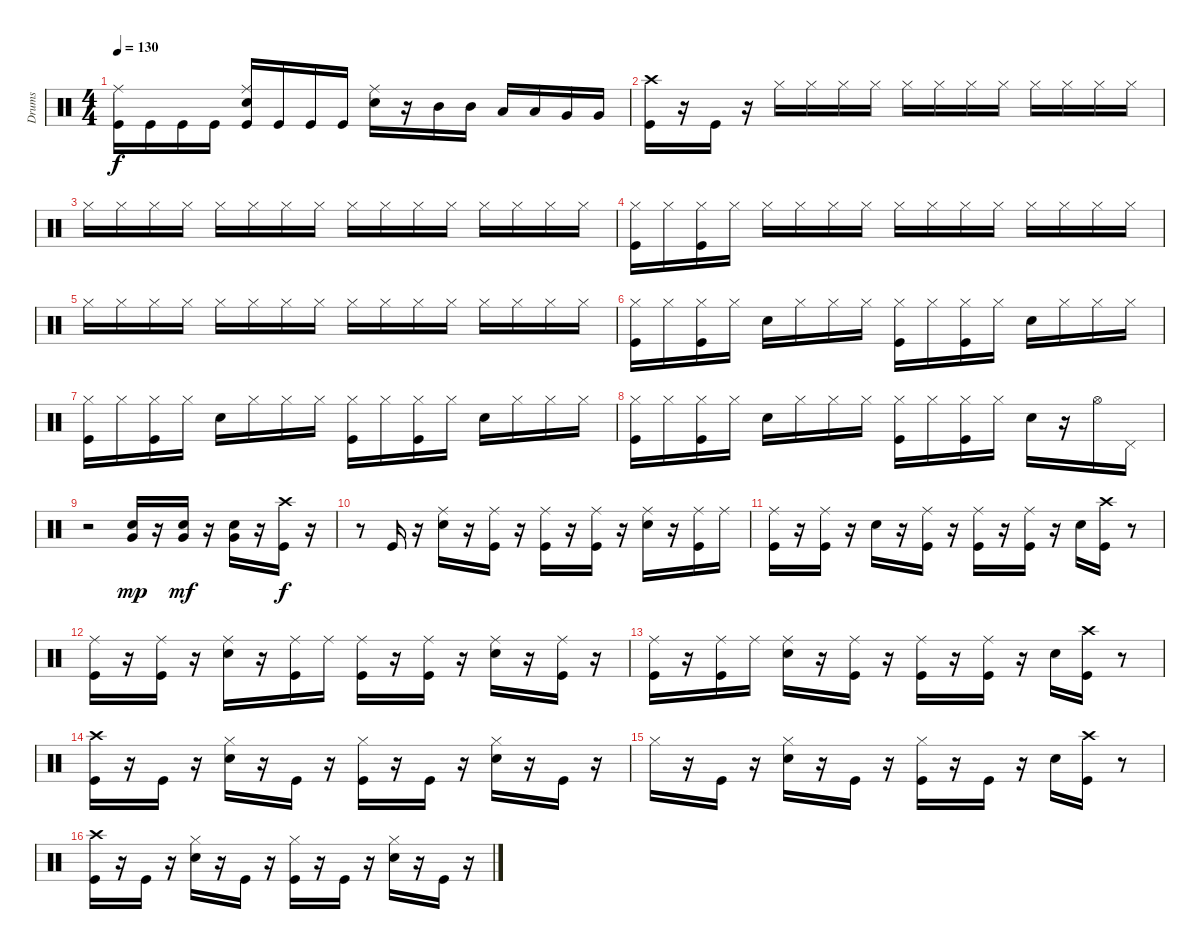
\track ("Drums" "Drums") {instrument percussion}
\staff {score}
\articulation defaults
\ts (4 4)
\tempo 130
\clef neutral
\ks c
("Kick (hit)" "Ride (middle)").16{dy f} "Kick (hit)".16 "Kick (hit)".16 "Kick (hit)".16 ("Kick (hit)" "Snare (hit) 2" "Ride (middle)").16 "Kick (hit)".16 "Kick (hit)".16 "Kick (hit)".16 ("Ride (middle)" "Snare (hit) 2").16 r.16 "Mid Tom (hit)".16 "Mid Tom (hit)".16 "Low Tom (hit)".16 "Low Tom (hit)".16 "Very Low Tom (hit)".16 "Very Low Tom (hit)".16 |
("Crash high (hit)" "Kick (hit)").16 r.16 "Kick (hit)".16 r.16 "Hi-Hat (closed)".16 "Hi-Hat (closed)".16 "Hi-Hat (closed)".16 "Hi-Hat (closed)".16 "Hi-Hat (closed)".16 "Hi-Hat (closed)".16 "Hi-Hat (closed)".16 "Hi-Hat (closed)".16 "Hi-Hat (closed)".16 "Hi-Hat (closed)".16 "Hi-Hat (closed)".16 "Hi-Hat (closed)".16 |
"Hi-Hat (closed)".16 "Hi-Hat (closed)".16 "Hi-Hat (closed)".16 "Hi-Hat (closed)".16 "Hi-Hat (closed)".16 "Hi-Hat (closed)".16 "Hi-Hat (closed)".16 "Hi-Hat (closed)".16 "Hi-Hat (closed)".16 "Hi-Hat (closed)".16 "Hi-Hat (closed)".16 "Hi-Hat (closed)".16 "Hi-Hat (closed)".16 "Hi-Hat (closed)".16 "Hi-Hat (closed)".16 "Hi-Hat (closed)".16 |
("Kick (hit)" "Hi-Hat (closed)").16 "Hi-Hat (closed)".16 ("Kick (hit)" "Hi-Hat (closed)").16 "Hi-Hat (closed)".16 "Hi-Hat (closed)".16 "Hi-Hat (closed)".16 "Hi-Hat (closed)".16 "Hi-Hat (closed)".16 "Hi-Hat (closed)".16 "Hi-Hat (closed)".16 "Hi-Hat (closed)".16 "Hi-Hat (closed)".16 "Hi-Hat (closed)".16 "Hi-Hat (closed)".16 "Hi-Hat (closed)".16 "Hi-Hat (closed)".16 |
"Hi-Hat (closed)".16 "Hi-Hat (closed)".16 "Hi-Hat (closed)".16 "Hi-Hat (closed)".16 "Hi-Hat (closed)".16 "Hi-Hat (closed)".16 "Hi-Hat (closed)".16 "Hi-Hat (closed)".16 "Hi-Hat (closed)".16 "Hi-Hat (closed)".16 "Hi-Hat (closed)".16 "Hi-Hat (closed)".16 "Hi-Hat (closed)".16 "Hi-Hat (closed)".16 "Hi-Hat (closed)".16 "Hi-Hat (closed)".16 |
("Kick (hit)" "Hi-Hat (closed)").16 "Hi-Hat (closed)".16 ("Kick (hit)" "Hi-Hat (closed)").16 "Hi-Hat (closed)".16 "Snare (hit) 2".16 "Hi-Hat (closed)".16 "Hi-Hat (closed)".16 "Hi-Hat (closed)".16 ("Kick (hit)" "Hi-Hat (closed)").16 "Hi-Hat (closed)".16 ("Kick (hit)" "Hi-Hat (closed)").16 "Hi-Hat (closed)".16 "Snare (hit) 2".16 "Hi-Hat (closed)".16 "Hi-Hat (closed)".16 "Hi-Hat (closed)".16 |
("Kick (hit)" "Hi-Hat (closed)").16 "Hi-Hat (closed)".16 ("Kick (hit)" "Hi-Hat (closed)").16 "Hi-Hat (closed)".16 "Snare (hit) 2".16 "Hi-Hat (closed)".16 "Hi-Hat (closed)".16 "Hi-Hat (closed)".16 ("Kick (hit)" "Hi-Hat (closed)").16 "Hi-Hat (closed)".16 ("Kick (hit)" "Hi-Hat (closed)").16 "Hi-Hat (closed)".16 "Snare (hit) 2".16 "Hi-Hat (closed)".16 "Hi-Hat (closed)".16 "Hi-Hat (closed)".16 |
("Kick (hit)" "Hi-Hat (closed)").16 "Hi-Hat (closed)".16 ("Kick (hit)" "Hi-Hat (closed)").16 "Hi-Hat (closed)".16 "Snare (hit) 2".16 "Hi-Hat (closed)".16 "Hi-Hat (closed)".16 "Hi-Hat (closed)".16 ("Kick (hit)" "Hi-Hat (closed)").16 "Hi-Hat (closed)".16 ("Kick (hit)" "Hi-Hat (closed)").16 "Hi-Hat (closed)".16 "Snare (hit) 2".16 r.16 "Hi-Hat (open)".16 "Pedal Hi-Hat (hit)".16 |
r.2 ("Very Low Tom (hit)" "Snare (hit) 2").16{dy mp} r.16 ("Very Low Tom (hit)" "Snare (hit) 2").16{dy mf} r.16 ("Very Low Tom (hit)" "Snare (hit) 2").16 r.16 ("Crash high (hit)" "Kick (hit)").16{dy f} r.16 |
r.8 "Kick (hit)".16 r.16 ("Snare (hit) 2" "Ride (middle)").16 r.16 ("Kick (hit)" "Ride (middle)").16 r.16 ("Kick (hit)" "Ride (middle)").16 r.16 ("Kick (hit)" "Ride (middle)").16 r.16 ("Snare (hit) 2" "Ride (middle)").16 r.16 ("Kick (hit)" "Ride (middle)").16 "Ride (middle)".16 |
("Kick (hit)" "Ride (middle)").16 r.16 ("Kick (hit)" "Ride (middle)").16 r.16 "Snare (hit) 2".16 r.16 ("Kick (hit)" "Ride (middle)").16 r.16 ("Kick (hit)" "Ride (middle)").16 r.16 ("Kick (hit)" "Ride (middle)").16 r.16 "Snare (hit) 2".16 ("Crash high (hit)" "Kick (hit)").16 r.8 |
("Ride (middle)" "Kick (hit)").16 r.16 ("Ride (middle)" "Kick (hit)").16 r.16 ("Snare (hit) 2" "Ride (middle)").16 r.16 ("Kick (hit)" "Ride (middle)").16 "Ride (middle)".16 ("Kick (hit)" "Ride (middle)").16 r.16 ("Kick (hit)" "Ride (middle)").16 r.16 ("Snare (hit) 2" "Ride (middle)").16 r.16 ("Kick (hit)" "Ride (middle)").16 r.16 |
("Kick (hit)" "Ride (middle)").16 r.16 ("Kick (hit)" "Ride (middle)").16 "Ride (middle)".16 ("Ride (middle)" "Snare (hit) 2").16 r.16 ("Kick (hit)" "Ride (middle)").16 r.16 ("Kick (hit)" "Ride (middle)").16 r.16 ("Kick (hit)" "Ride (middle)").16 r.16 "Snare (hit) 2".16 ("Crash high (hit)" "Kick (hit)").16 r.8 |
("Crash high (hit)" "Kick (hit)").16 r.16 "Kick (hit)".16 r.16 ("Hi-Hat (closed)" "Snare (hit) 2").16 r.16 "Kick (hit)".16 r.16 ("Kick (hit)" "Hi-Hat (closed)").16 r.16 "Kick (hit)".16 r.16 ("Snare (hit) 2" "Hi-Hat (closed)").16 r.16 "Kick (hit)".16 r.16 |
"Hi-Hat (closed)".16 r.16 "Kick (hit)".16 r.16 ("Snare (hit) 2" "Hi-Hat (closed)").16 r.16 "Kick (hit)".16 r.16 ("Hi-Hat (closed)" "Kick (hit)").16 r.16 "Kick (hit)".16 r.16 "Snare (hit) 2".16 ("Crash high (hit)" "Kick (hit)").16 r.8 |
("Crash high (hit)" "Kick (hit)").16 r.16 "Kick (hit)".16 r.16 ("Hi-Hat (closed)" "Snare (hit) 2").16 r.16 "Kick (hit)".16 r.16 ("Kick (hit)" "Hi-Hat (closed)").16 r.16 "Kick (hit)".16 r.16 ("Snare (hit) 2" "Hi-Hat (closed)").16 r.16 "Kick (hit)".16 r.16
